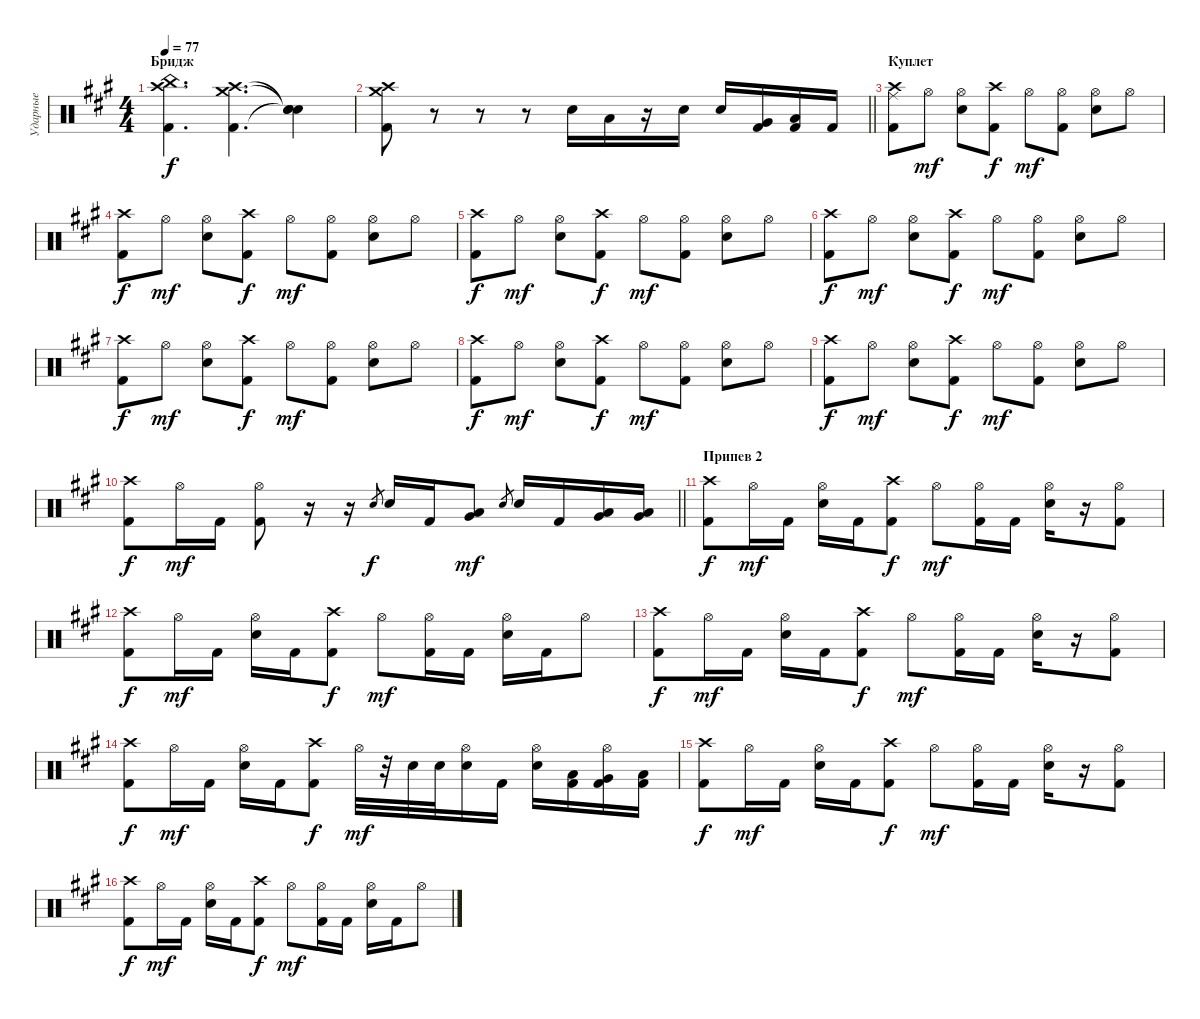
\track ("Ударные" "Ударные") {instrument percussion}
\staff {score}
\articulation defaults
\ts (4 4)
\section ("" "Бридж")
\tempo 77
\clef neutral
\ks f#minor
("Kick (hit) 2" "Crash high (hit)" "China (hit)").4{d dy f} ("Kick (hit) 2" "Crash medium (hit)" "Crash high (hit)").4{d} ("Snare (hit)"{t} "Snare (hit)"{t} "Snare (hit)"{t}).4 |
\barLineRight lightlight
("Kick (hit) 2" "Crash medium (hit)" "Crash high (hit)").8 r.8 r.8 r.8 "Electric Snare (hit)".16 "Low Floor Tom (hit)".16 r.16 "Electric Snare (hit)".16 "Electric Snare (hit)".16 ("Very Low Tom (hit)" "Kick (hit) 2").16 ("Low Floor Tom (hit)" "Kick (hit) 2").16 "Kick (hit) 2".16 |
\section ("" "Куплет")
("Ride (middle)" "Crash high (hit)" "Kick (hit) 2").8 "Hi-Hat (open)".8{dy mf} ("Hi-Hat (open)" "Electric Snare (hit)").8 ("Crash high (hit)" "Kick (hit) 2").8{dy f} "Hi-Hat (open)".8{dy mf} ("Hi-Hat (open)" "Kick (hit) 2").8 ("Hi-Hat (open)" "Electric Snare (hit)").8 "Hi-Hat (open)".8 |
("Crash high (hit)" "Kick (hit) 2").8{dy f} "Hi-Hat (open)".8{dy mf} ("Hi-Hat (open)" "Electric Snare (hit)").8 ("Crash high (hit)" "Kick (hit) 2").8{dy f} "Hi-Hat (open)".8{dy mf} ("Hi-Hat (open)" "Kick (hit) 2").8 ("Hi-Hat (open)" "Electric Snare (hit)").8 "Hi-Hat (open)".8 |
("Crash high (hit)" "Kick (hit) 2").8{dy f} "Hi-Hat (open)".8{dy mf} ("Hi-Hat (open)" "Electric Snare (hit)").8 ("Crash high (hit)" "Kick (hit) 2").8{dy f} "Hi-Hat (open)".8{dy mf} ("Hi-Hat (open)" "Kick (hit) 2").8 ("Hi-Hat (open)" "Electric Snare (hit)").8 "Hi-Hat (open)".8 |
("Crash high (hit)" "Kick (hit) 2").8{dy f} "Hi-Hat (open)".8{dy mf} ("Hi-Hat (open)" "Electric Snare (hit)").8 ("Crash high (hit)" "Kick (hit) 2").8{dy f} "Hi-Hat (open)".8{dy mf} ("Hi-Hat (open)" "Kick (hit) 2").8 ("Hi-Hat (open)" "Electric Snare (hit)").8 "Hi-Hat (open)".8 |
("Crash high (hit)" "Kick (hit) 2").8{dy f} "Hi-Hat (open)".8{dy mf} ("Hi-Hat (open)" "Electric Snare (hit)").8 ("Crash high (hit)" "Kick (hit) 2").8{dy f} "Hi-Hat (open)".8{dy mf} ("Hi-Hat (open)" "Kick (hit) 2").8 ("Hi-Hat (open)" "Electric Snare (hit)").8 "Hi-Hat (open)".8 |
("Crash high (hit)" "Kick (hit) 2").8{dy f} "Hi-Hat (open)".8{dy mf} ("Hi-Hat (open)" "Electric Snare (hit)").8 ("Crash high (hit)" "Kick (hit) 2").8{dy f} "Hi-Hat (open)".8{dy mf} ("Hi-Hat (open)" "Kick (hit) 2").8 ("Hi-Hat (open)" "Electric Snare (hit)").8 "Hi-Hat (open)".8 |
("Crash high (hit)" "Kick (hit) 2").8{dy f} "Hi-Hat (open)".8{dy mf} ("Hi-Hat (open)" "Electric Snare (hit)").8 ("Crash high (hit)" "Kick (hit) 2").8{dy f} "Hi-Hat (open)".8{dy mf} ("Hi-Hat (open)" "Kick (hit) 2").8 ("Hi-Hat (open)" "Electric Snare (hit)").8 "Hi-Hat (open)".8 |
\barLineRight lightlight
("Crash high (hit)" "Kick (hit) 2").8{dy f} "Hi-Hat (open)".16{dy mf} "Kick (hit) 2".16 ("Hi-Hat (open)" "Kick (hit) 2").8 r.16 r.16 "Electric Snare (hit)".8{gr dy f} "Electric Snare (hit)".16 "Kick (hit) 2".16 ("Low Floor Tom (hit)" "Very Low Tom (hit)").8{dy mf} "Electric Snare (hit)".8{gr} "Electric Snare (hit)".16 "Kick (hit) 2".16 ("Low Tom (hit)" "Very Low Tom (hit)").16 ("Very Low Tom (hit)" "Low Floor Tom (hit)").16 |
\section ("" "Припев 2")
("Crash high (hit)" "Kick (hit) 2").8{dy f} "Hi-Hat (open)".16{dy mf} "Kick (hit) 2".16 ("Hi-Hat (open)" "Electric Snare (hit)").16 "Kick (hit) 2".16 ("Crash high (hit)" "Kick (hit) 2").8{dy f} "Hi-Hat (open)".8{dy mf} ("Hi-Hat (open)" "Kick (hit) 2").16 "Kick (hit) 2".16 ("Hi-Hat (open)" "Electric Snare (hit)").16 r.16 ("Hi-Hat (open)" "Kick (hit) 2").8 |
("Crash high (hit)" "Kick (hit) 2").8{dy f} "Hi-Hat (open)".16{dy mf} "Kick (hit) 2".16 ("Hi-Hat (open)" "Electric Snare (hit)").16 "Kick (hit) 2".16 ("Crash high (hit)" "Kick (hit) 2").8{dy f} "Hi-Hat (open)".8{dy mf} ("Hi-Hat (open)" "Kick (hit) 2").16 "Kick (hit) 2".16 ("Hi-Hat (open)" "Electric Snare (hit)").16 "Kick (hit) 2".16 "Hi-Hat (open)".8 |
("Crash high (hit)" "Kick (hit) 2").8{dy f} "Hi-Hat (open)".16{dy mf} "Kick (hit) 2".16 ("Hi-Hat (open)" "Electric Snare (hit)").16 "Kick (hit) 2".16 ("Crash high (hit)" "Kick (hit) 2").8{dy f} "Hi-Hat (open)".8{dy mf} ("Hi-Hat (open)" "Kick (hit) 2").16 "Kick (hit) 2".16 ("Hi-Hat (open)" "Electric Snare (hit)").16 r.16 ("Hi-Hat (open)" "Kick (hit) 2").8 |
("Crash high (hit)" "Kick (hit) 2").8{dy f} "Hi-Hat (open)".16{dy mf} "Kick (hit) 2".16 ("Hi-Hat (open)" "Electric Snare (hit)").16 "Kick (hit) 2".16 ("Crash high (hit)" "Kick (hit) 2").8{dy f} "Hi-Hat (open)".32{dy mf} r.32 "Electric Snare (hit)".32 "Electric Snare (hit)".32 ("Hi-Hat (open)" "Electric Snare (hit)").16 "Kick (hit) 2".16 ("Hi-Hat (open)" "Electric Snare (hit)").16 ("Low Tom (hit)" "Kick (hit) 2").16 ("Hi-Hat (open)" "Very Low Tom (hit)" "Kick (hit) 2").16 ("Low Floor Tom (hit)" "Kick (hit) 2").16 |
("Crash high (hit)" "Kick (hit) 2").8{dy f} "Hi-Hat (open)".16{dy mf} "Kick (hit) 2".16 ("Hi-Hat (open)" "Electric Snare (hit)").16 "Kick (hit) 2".16 ("Crash high (hit)" "Kick (hit) 2").8{dy f} "Hi-Hat (open)".8{dy mf} ("Hi-Hat (open)" "Kick (hit) 2").16 "Kick (hit) 2".16 ("Hi-Hat (open)" "Electric Snare (hit)").16 r.16 ("Hi-Hat (open)" "Kick (hit) 2").8 |
("Crash high (hit)" "Kick (hit) 2").8{dy f} "Hi-Hat (open)".16{dy mf} "Kick (hit) 2".16 ("Hi-Hat (open)" "Electric Snare (hit)").16 "Kick (hit) 2".16 ("Crash high (hit)" "Kick (hit) 2").8{dy f} "Hi-Hat (open)".8{dy mf} ("Hi-Hat (open)" "Kick (hit) 2").16 "Kick (hit) 2".16 ("Hi-Hat (open)" "Electric Snare (hit)").16 "Kick (hit) 2".16 "Hi-Hat (open)".8
